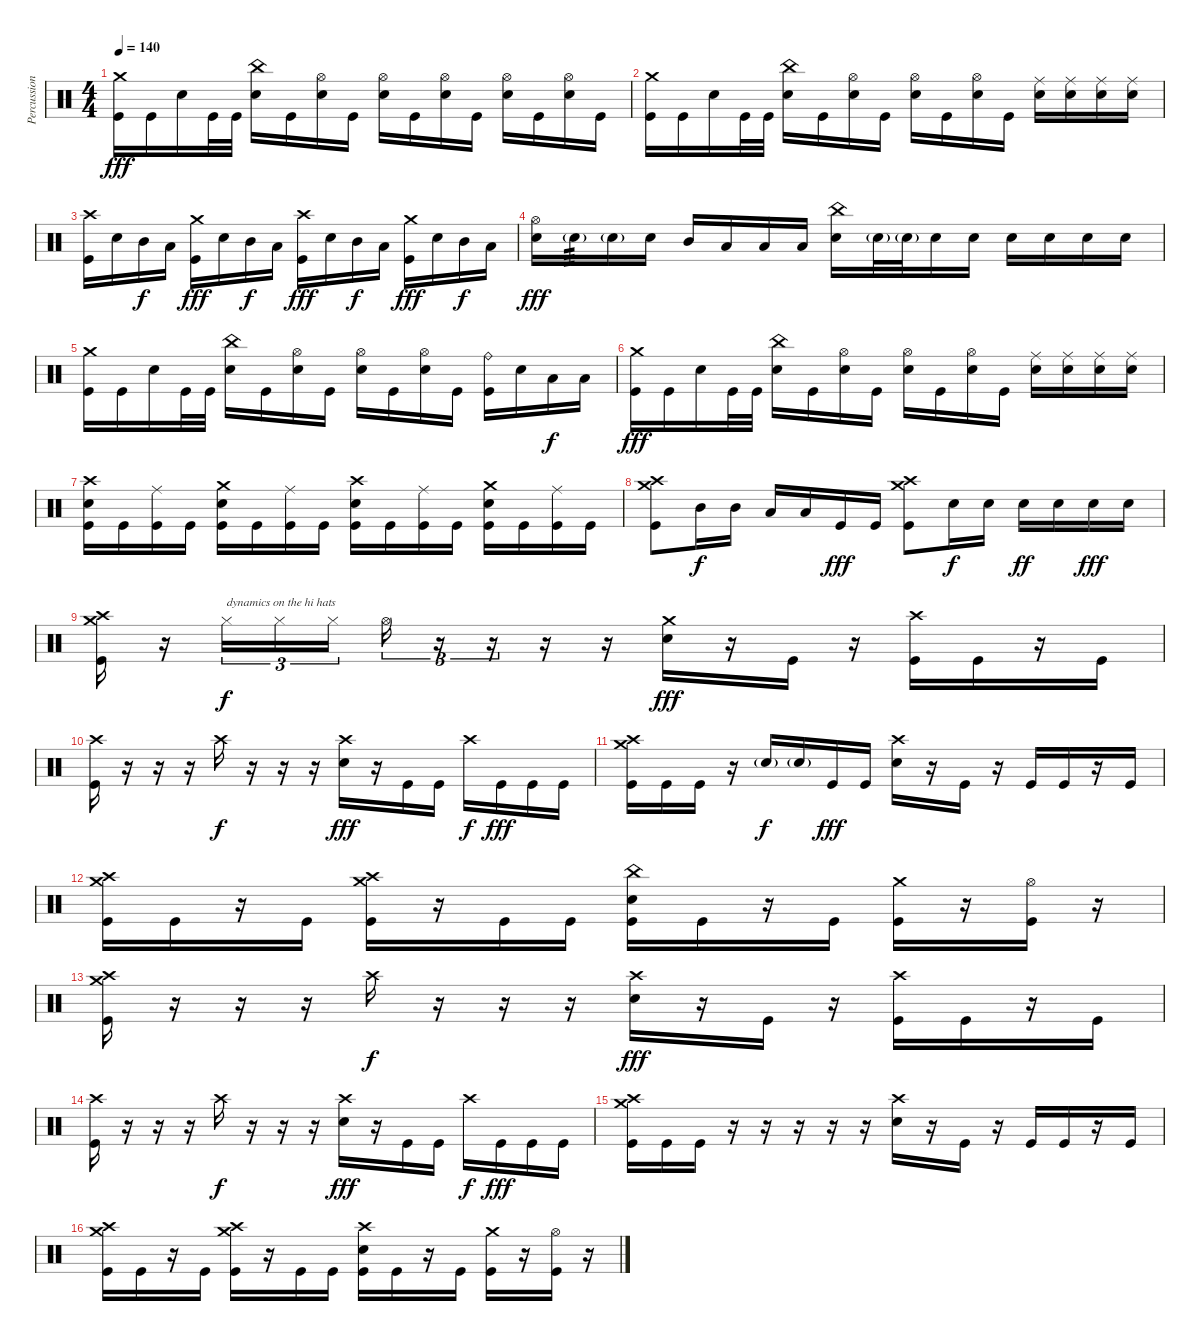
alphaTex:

\track ("Percussion" "Percussion") {instrument percussion}
\staff {score}
\articulation defaults
\ts (4 4)
\tempo 140
\clef neutral
\ks c
("Crash medium (hit)" "Kick (hit)").16{dy fff} "Kick (hit)".16 "Snare (hit) 2".16 "Kick (hit)".32 "Kick (hit)".32 ("China (hit)" "Snare (hit) 2").16 "Kick (hit)".16 ("Hi-Hat (open)" "Snare (hit) 2").16 "Kick (hit)".16 ("Hi-Hat (open)" "Snare (hit) 2").16 "Kick (hit)".16 ("Hi-Hat (open)" "Snare (hit) 2").16 "Kick (hit)".16 ("Hi-Hat (open)" "Snare (hit) 2").16 "Kick (hit)".16 ("Hi-Hat (open)" "Snare (hit) 2").16 "Kick (hit)".16 |
("Crash medium (hit)" "Kick (hit)").16 "Kick (hit)".16 "Snare (hit) 2".16 "Kick (hit)".32 "Kick (hit)".32 ("China (hit)" "Snare (hit) 2").16 "Kick (hit)".16 ("Hi-Hat (open)" "Snare (hit) 2").16 "Kick (hit)".16 ("Hi-Hat (open)" "Snare (hit) 2").16 "Kick (hit)".16 ("Hi-Hat (open)" "Snare (hit) 2").16 "Kick (hit)".16 ("Ride (middle)" "Snare (hit) 2").16 ("Ride (middle)" "Snare (hit) 2").16 ("Ride (middle)" "Snare (hit) 2").16 ("Ride (middle)" "Snare (hit) 2").16 |
("Crash high (hit)" "Kick (hit)").16 "Snare (hit) 2".16 "Mid Tom (hit)".16{dy f} "Low Floor Tom (hit)".16 ("Crash medium (hit)" "Kick (hit)").16{dy fff} "Snare (hit) 2".16 "Mid Tom (hit)".16{dy f} "Low Floor Tom (hit)".16 ("Crash high (hit)" "Kick (hit)").16{dy fff} "Snare (hit) 2".16 "Mid Tom (hit)".16{dy f} "Low Floor Tom (hit)".16 ("Crash medium (hit)" "Kick (hit)").16{dy fff} "Snare (hit) 2".16 "Mid Tom (hit)".16{dy f} "Low Floor Tom (hit)".16 |
("Hi-Hat (open)" "Snare (hit) 2").16{dy fff} "Snare (hit) 2"{g}.16{tp 3} "Snare (hit) 2"{g}.16 "Snare (hit) 2".16 "Mid Tom (hit)".16 "Low Floor Tom (hit)".16 "Low Floor Tom (hit)".16 "Low Floor Tom (hit)".16 ("China (hit)" "Snare (hit) 2").16 "Snare (hit) 2"{g}.32 "Snare (hit) 2"{g}.32 "Snare (hit) 2".16 "Snare (hit) 2".16 "Snare (hit) 2".16 "Snare (hit) 2".16 "Snare (hit) 2".16 "Snare (hit) 2".16 |
("Crash medium (hit)" "Kick (hit)").16 "Kick (hit)".16 "Snare (hit) 2".16 "Kick (hit)".32 "Kick (hit)".32 ("China (hit)" "Snare (hit) 2").16 "Kick (hit)".16 ("Hi-Hat (open)" "Snare (hit) 2").16 "Kick (hit)".16 ("Hi-Hat (open)" "Snare (hit) 2").16 "Kick (hit)".16 ("Hi-Hat (open)" "Snare (hit) 2").16 "Kick (hit)".16 ("Ride (bell)" "Kick (hit)").16 "Snare (hit) 2".16 "Low Floor Tom (hit)".16{dy f} "Low Floor Tom (hit)".16 |
("Crash medium (hit)" "Kick (hit)").16{dy fff} "Kick (hit)".16 "Snare (hit) 2".16 "Kick (hit)".32 "Kick (hit)".32 ("China (hit)" "Snare (hit) 2").16 "Kick (hit)".16 ("Hi-Hat (open)" "Snare (hit) 2").16 "Kick (hit)".16 ("Hi-Hat (open)" "Snare (hit) 2").16 "Kick (hit)".16 ("Hi-Hat (open)" "Snare (hit) 2").16 "Kick (hit)".16 ("Ride (middle)" "Snare (hit) 2").16 ("Ride (middle)" "Snare (hit) 2").16 ("Ride (middle)" "Snare (hit) 2").16 ("Ride (middle)" "Snare (hit) 2").16 |
("Crash high (hit)" "Snare (hit) 2" "Kick (hit)").16 "Kick (hit)".16 ("Ride (middle)" "Kick (hit)").16 "Kick (hit)".16 ("Crash medium (hit)" "Snare (hit) 2" "Kick (hit)").16 "Kick (hit)".16 ("Ride (middle)" "Kick (hit)").16 "Kick (hit)".16 ("Crash high (hit)" "Snare (hit) 2" "Kick (hit)").16 "Kick (hit)".16 ("Ride (middle)" "Kick (hit)").16 "Kick (hit)".16 ("Crash medium (hit)" "Snare (hit) 2" "Kick (hit)").16 "Kick (hit)".16 ("Ride (middle)" "Kick (hit)").16 "Kick (hit)".16 |
("Crash medium (hit)" "Crash high (hit)" "Kick (hit)").8 "Mid Tom (hit)".16{dy f} "Mid Tom (hit)".16 "Low Floor Tom (hit)".16 "Low Floor Tom (hit)".16 "Kick (hit)".16{dy fff} "Kick (hit)".16 ("Crash medium (hit)" "Crash high (hit)" "Kick (hit)").8 "Snare (hit) 2".16{dy f} "Snare (hit) 2".16 "Snare (hit) 2".16{dy ff} "Snare (hit) 2".16 "Snare (hit) 2".16{dy fff} "Snare (hit) 2".16 |
("Crash medium (hit)" "Crash high (hit)" "Kick (hit)").16 r.16 "Hi-Hat (closed)".16{tu (3 2) txt "dynamics on the hi hats" dy f} "Hi-Hat (closed)".16{tu (3 2)} "Hi-Hat (closed)".16{tu (3 2)} "Hi-Hat (open)".16{tu (3 2)} r.16{tu (3 2)} r.16{tu (3 2)} r.16 r.16 ("Crash medium (hit)" "Snare (hit) 2").16{dy fff} r.16 "Kick (hit)".16 r.16 ("Crash high (hit)" "Kick (hit)").16 "Kick (hit)".16 r.16 "Kick (hit)".16 |
("Crash high (hit)" "Kick (hit)").16 r.16 r.16 r.16 "Crash high (hit)".16{dy f} r.16 r.16 r.16 ("Crash high (hit)" "Snare (hit) 2").16{dy fff} r.16 "Kick (hit)".16 "Kick (hit)".16 "Crash high (hit)".16{dy f} "Kick (hit)".16{dy fff} "Kick (hit)".16 "Kick (hit)".16 |
("Crash high (hit)" "Crash medium (hit)" "Kick (hit)").16 "Kick (hit)".16 "Kick (hit)".16 r.16 "Snare (hit) 2"{g}.16{dy f} "Snare (hit) 2"{g}.16 "Kick (hit)".16{dy fff} "Kick (hit)".16 ("Crash high (hit)" "Snare (hit) 2").16 r.16 "Kick (hit)".16 r.16 "Kick (hit)".16 "Kick (hit)".16 r.16 "Kick (hit)".16 |
("Crash medium (hit)" "Crash high (hit)" "Kick (hit)").16 "Kick (hit)".16 r.16 "Kick (hit)".16 ("Crash medium (hit)" "Crash high (hit)" "Kick (hit)").16 r.16 "Kick (hit)".16 "Kick (hit)".16 ("China (hit)" "Snare (hit) 2" "Kick (hit)").16 "Kick (hit)".16 r.16 "Kick (hit)".16 ("Crash medium (hit)" "Kick (hit)").16 r.16 ("Hi-Hat (open)" "Kick (hit)").16 r.16 |
("Crash medium (hit)" "Crash high (hit)" "Kick (hit)").16 r.16 r.16 r.16 "Crash high (hit)".16{dy f} r.16 r.16 r.16 ("Crash high (hit)" "Snare (hit) 2").16{dy fff} r.16 "Kick (hit)".16 r.16 ("Crash high (hit)" "Kick (hit)").16 "Kick (hit)".16 r.16 "Kick (hit)".16 |
("Crash high (hit)" "Kick (hit)").16 r.16 r.16 r.16 "Crash high (hit)".16{dy f} r.16 r.16 r.16 ("Crash high (hit)" "Snare (hit) 2").16{dy fff} r.16 "Kick (hit)".16 "Kick (hit)".16 "Crash high (hit)".16{dy f} "Kick (hit)".16{dy fff} "Kick (hit)".16 "Kick (hit)".16 |
("Crash high (hit)" "Crash medium (hit)" "Kick (hit)").16 "Kick (hit)".16 "Kick (hit)".16 r.16 r.16 r.16 r.16 r.16 ("Crash high (hit)" "Snare (hit) 2").16 r.16 "Kick (hit)".16 r.16 "Kick (hit)".16 "Kick (hit)".16 r.16 "Kick (hit)".16 |
("Crash medium (hit)" "Crash high (hit)" "Kick (hit)").16 "Kick (hit)".16 r.16 "Kick (hit)".16 ("Crash medium (hit)" "Crash high (hit)" "Kick (hit)").16 r.16 "Kick (hit)".16 "Kick (hit)".16 ("Crash high (hit)" "Snare (hit) 2" "Kick (hit)").16 "Kick (hit)".16 r.16 "Kick (hit)".16 ("Crash medium (hit)" "Kick (hit)").16 r.16 ("Hi-Hat (open)" "Kick (hit)").16 r.16
